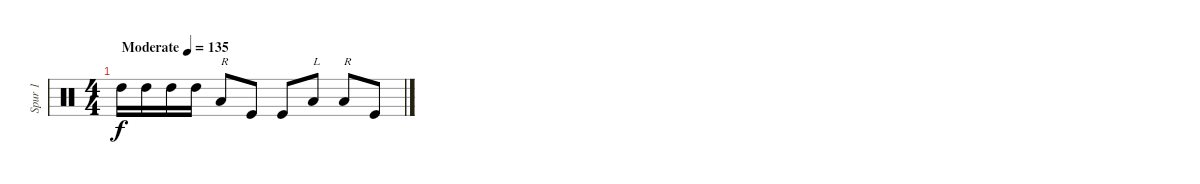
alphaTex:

\track ("Spur 1" "Spur 1") {instrument percussion}
\staff {score}
\articulation defaults
\ts (4 4)
\tempo (135 "Moderate")
\clef neutral
\ks c "High Tom (hit)".16{dy f} "High Tom (hit)".16 "High Tom (hit)".16 "High Tom (hit)".16 "Low Floor Tom (hit)".8{txt "R"} "Kick (hit)".8 "Kick (hit)".8 "Low Floor Tom (hit)".8{txt "L"} "Low Floor Tom (hit)".8{txt "R"} "Kick (hit)".8
